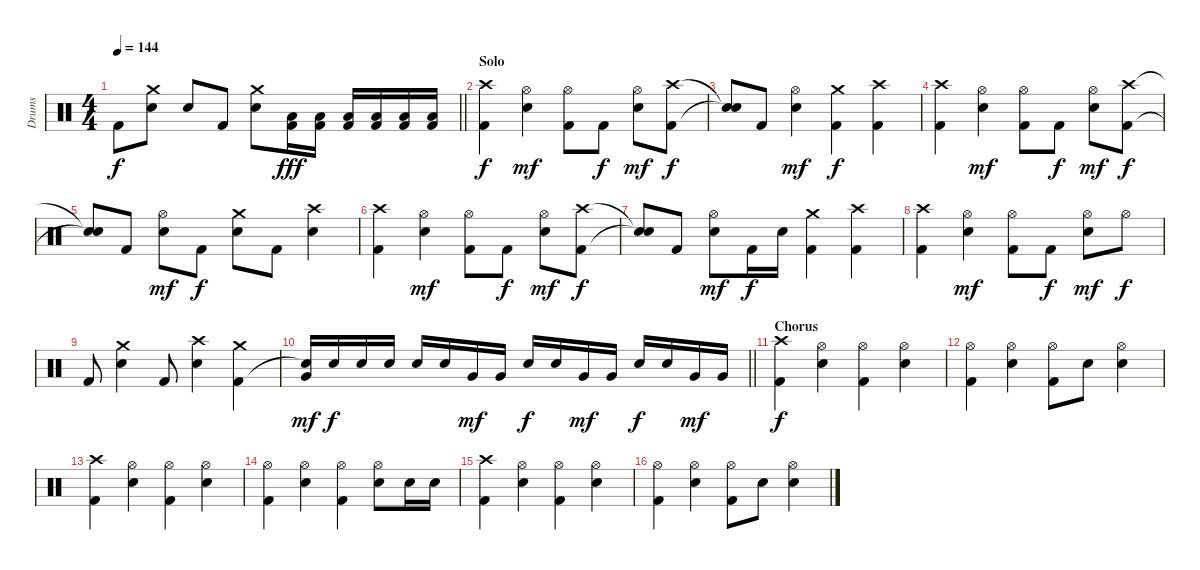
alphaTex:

\track ("Drums" "Drums") {instrument percussion}
\staff {score}
\articulation defaults
\ts (4 4)
\tempo 144
\clef neutral
\barLineRight lightlight
\ks c "Kick (hit) 2".8{dy f}
("Crash medium (hit)" "Snare (hit) 2").8 "Snare (hit) 2".8 "Kick (hit) 2".8 ("Crash medium (hit)" "Snare (hit) 2").8 ("Kick (hit) 2" "Low Floor Tom (hit)").16{dy fff} ("Kick (hit) 2" "Low Floor Tom (hit)").16 ("Kick (hit) 2" "Low Floor Tom (hit)").16 ("Kick (hit) 2" "Low Floor Tom (hit)").16 ("Kick (hit) 2" "Low Floor Tom (hit)").16 ("Kick (hit) 2" "Low Floor Tom (hit)").16 |
\section ("" "Solo")
("Kick (hit) 2" "Crash high (hit)").4{dy f} ("Hi-Hat (open)" "Snare (hit) 2").4{dy mf} ("Kick (hit) 2" "Hi-Hat (open)").8 "Kick (hit) 2".8{dy f} ("Hi-Hat (open)" "Snare (hit) 2").8{dy mf} ("Kick (hit) 2" "Crash high (hit)").8{dy f} |
("Snare (hit)"{t} "Snare (hit)"{t}).8 "Kick (hit) 2".8 ("Hi-Hat (open)" "Snare (hit) 2").4{dy mf} ("Kick (hit) 2" "Crash medium (hit)").4{dy f} ("Kick (hit) 2" "Crash high (hit)").4 |
("Kick (hit) 2" "Crash high (hit)").4 ("Hi-Hat (open)" "Snare (hit) 2").4{dy mf} ("Kick (hit) 2" "Hi-Hat (open)").8 "Kick (hit) 2".8{dy f} ("Hi-Hat (open)" "Snare (hit) 2").8{dy mf} ("Kick (hit) 2" "Crash high (hit)").8{dy f} |
("Snare (hit)"{t} "Snare (hit)"{t}).8 "Kick (hit) 2".8 ("Hi-Hat (open)" "Snare (hit) 2").8{dy mf} "Kick (hit) 2".8{dy f} ("Crash medium (hit)" "Snare (hit) 2").8 "Kick (hit) 2".8 ("Crash high (hit)" "Snare (hit) 2").4 |
("Kick (hit) 2" "Crash high (hit)").4 ("Hi-Hat (open)" "Snare (hit) 2").4{dy mf} ("Kick (hit) 2" "Hi-Hat (open)").8 "Kick (hit) 2".8{dy f} ("Hi-Hat (open)" "Snare (hit) 2").8{dy mf} ("Kick (hit) 2" "Crash high (hit)").8{dy f} |
("Snare (hit)"{t} "Snare (hit)"{t}).8 "Kick (hit) 2".8 ("Hi-Hat (open)" "Snare (hit) 2").8{dy mf} "Kick (hit) 2".16{dy f} "Snare (hit) 2".16 ("Kick (hit) 2" "Crash medium (hit)").4 ("Kick (hit) 2" "Crash high (hit)").4 |
("Kick (hit) 2" "Crash high (hit)").4 ("Hi-Hat (open)" "Snare (hit) 2").4{dy mf} ("Kick (hit) 2" "Hi-Hat (open)").8 "Kick (hit) 2".8{dy f} ("Hi-Hat (open)" "Snare (hit) 2").8{dy mf} "Hi-Hat (open)".8{dy f} |
"Kick (hit) 2".8 ("Crash medium (hit)" "Snare (hit) 2").4 "Kick (hit) 2".8 ("Crash high (hit)" "Snare (hit) 2").4 ("Kick (hit) 2" "Crash medium (hit)").4 |
\barLineRight lightlight
("Snare (hit)"{t} "Very Low Tom (hit)").16{dy mf} "Snare (hit) 2".16{dy f} "Snare (hit) 2".16 "Snare (hit) 2".16 "Snare (hit) 2".16 "Snare (hit) 2".16 "Very Low Tom (hit)".16{dy mf} "Very Low Tom (hit)".16 "Snare (hit) 2".16{dy f} "Snare (hit) 2".16 "Very Low Tom (hit)".16{dy mf} "Very Low Tom (hit)".16 "Snare (hit) 2".16{dy f} "Snare (hit) 2".16 "Very Low Tom (hit)".16{dy mf} "Very Low Tom (hit)".16 |
\section ("" "Chorus")
("Kick (hit) 2" "Crash high (hit)").4{dy f} ("Hi-Hat (open)" "Snare (hit) 2").4 ("Kick (hit) 2" "Hi-Hat (open)").4 ("Hi-Hat (open)" "Snare (hit) 2").4 |
("Kick (hit) 2" "Hi-Hat (open)").4 ("Hi-Hat (open)" "Snare (hit) 2").4 ("Kick (hit) 2" "Hi-Hat (open)").8 "Snare (hit) 2".8 ("Hi-Hat (open)" "Snare (hit) 2").4 |
("Kick (hit) 2" "Crash high (hit)").4 ("Hi-Hat (open)" "Snare (hit) 2").4 ("Kick (hit) 2" "Hi-Hat (open)").4 ("Hi-Hat (open)" "Snare (hit) 2").4 |
("Kick (hit) 2" "Hi-Hat (open)").4 ("Hi-Hat (open)" "Snare (hit) 2").4 ("Kick (hit) 2" "Hi-Hat (open)").4 ("Hi-Hat (open)" "Snare (hit) 2").8 "Snare (hit) 2".16 "Snare (hit) 2".16 |
("Kick (hit) 2" "Crash high (hit)").4 ("Hi-Hat (open)" "Snare (hit) 2").4 ("Kick (hit) 2" "Hi-Hat (open)").4 ("Hi-Hat (open)" "Snare (hit) 2").4 |
("Kick (hit) 2" "Hi-Hat (open)").4 ("Hi-Hat (open)" "Snare (hit) 2").4 ("Kick (hit) 2" "Hi-Hat (open)").8 "Snare (hit) 2".8 ("Hi-Hat (open)" "Snare (hit) 2").4
